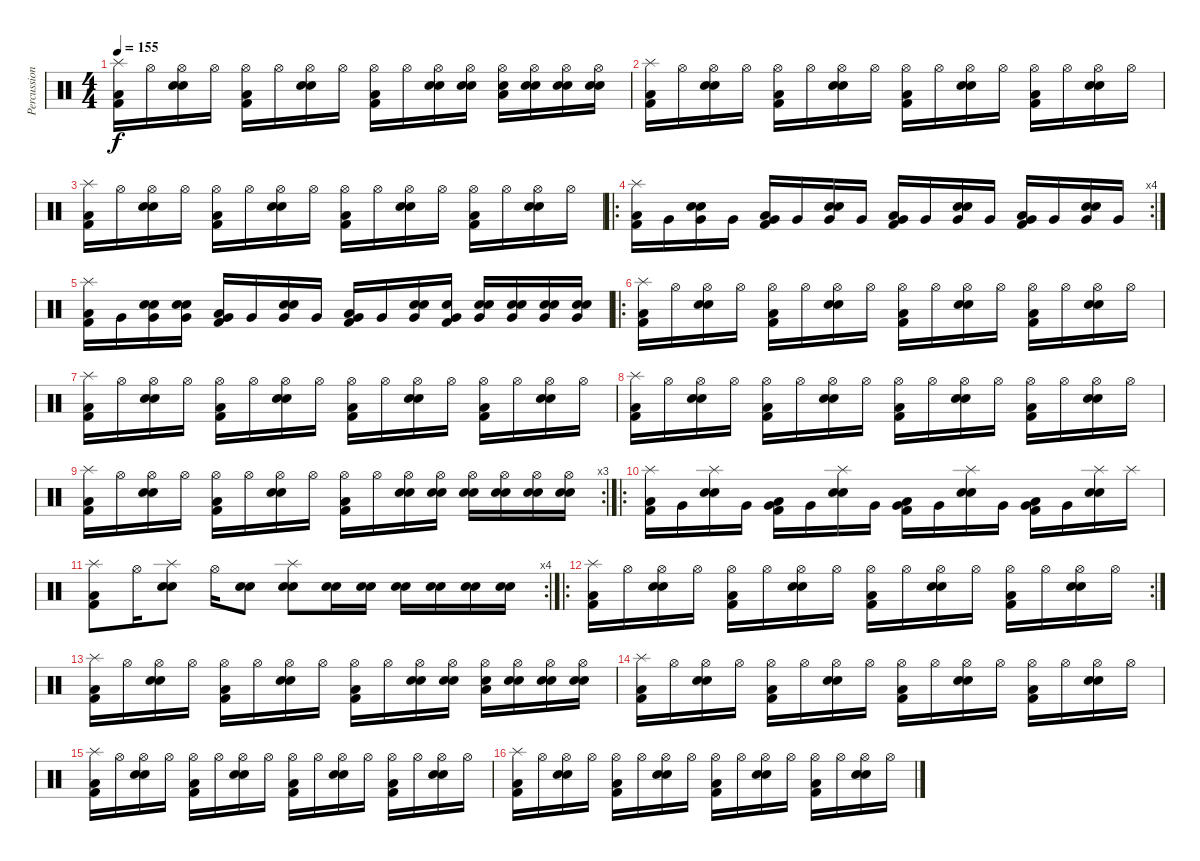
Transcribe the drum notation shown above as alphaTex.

\track ("Percussions" "Percussion") {instrument percussion}
\staff {score}
\articulation defaults
\ts (4 4)
\tempo 155
\clef neutral
\ks c
("Splash (hit)" "Kick (hit) 2" "Low Floor Tom (hit)").16{dy f} "Hi-Hat (open)".16 ("Hi-Hat (open)" "Snare (hit) 2" "Electric Snare (hit)").16 "Hi-Hat (open)".16 ("Hi-Hat (open)" "Kick (hit) 2" "Low Floor Tom (hit)").16 "Hi-Hat (open)".16 ("Hi-Hat (open)" "Snare (hit) 2" "Electric Snare (hit)").16 "Hi-Hat (open)".16 ("Hi-Hat (open)" "Kick (hit) 2" "Low Floor Tom (hit)").16 "Hi-Hat (open)".16 ("Hi-Hat (open)" "Snare (hit) 2" "Electric Snare (hit)").16 ("Hi-Hat (open)" "Snare (hit) 2" "Electric Snare (hit)").16 ("Hi-Hat (open)" "Snare (hit) 2" "Low Floor Tom (hit)").16 ("Hi-Hat (open)" "Snare (hit) 2" "Electric Snare (hit)").16 ("Hi-Hat (open)" "Snare (hit) 2" "Electric Snare (hit)").16 ("Hi-Hat (open)" "Snare (hit) 2" "Electric Snare (hit)").16 |
("Splash (hit)" "Kick (hit) 2" "Low Floor Tom (hit)").16 "Hi-Hat (open)".16 ("Hi-Hat (open)" "Snare (hit) 2" "Electric Snare (hit)").16 "Hi-Hat (open)".16 ("Hi-Hat (open)" "Kick (hit) 2" "Low Floor Tom (hit)").16 "Hi-Hat (open)".16 ("Hi-Hat (open)" "Snare (hit) 2" "Electric Snare (hit)").16 "Hi-Hat (open)".16 ("Hi-Hat (open)" "Kick (hit) 2" "Low Floor Tom (hit)").16 "Hi-Hat (open)".16 ("Hi-Hat (open)" "Snare (hit) 2" "Electric Snare (hit)").16 "Hi-Hat (open)".16 ("Hi-Hat (open)" "Kick (hit) 2" "Low Floor Tom (hit)").16 "Hi-Hat (open)".16 ("Hi-Hat (open)" "Snare (hit) 2" "Electric Snare (hit)").16 "Hi-Hat (open)".16 |
("Splash (hit)" "Kick (hit) 2" "Low Floor Tom (hit)").16 "Hi-Hat (open)".16 ("Hi-Hat (open)" "Snare (hit) 2" "Electric Snare (hit)").16 "Hi-Hat (open)".16 ("Hi-Hat (open)" "Kick (hit) 2" "Low Floor Tom (hit)").16 "Hi-Hat (open)".16 ("Hi-Hat (open)" "Snare (hit) 2" "Electric Snare (hit)").16 "Hi-Hat (open)".16 ("Hi-Hat (open)" "Kick (hit) 2" "Low Floor Tom (hit)").16 "Hi-Hat (open)".16 ("Hi-Hat (open)" "Snare (hit) 2" "Electric Snare (hit)").16 "Hi-Hat (open)".16 ("Hi-Hat (open)" "Kick (hit) 2" "Low Floor Tom (hit)").16 "Hi-Hat (open)".16 ("Hi-Hat (open)" "Snare (hit) 2" "Electric Snare (hit)").16 "Hi-Hat (open)".16 |
\ro
\rc 4
("Splash (hit)" "Kick (hit) 2" "Low Floor Tom (hit)").16 "Very Low Tom (hit)".16 ("Very Low Tom (hit)" "Electric Snare (hit)" "Snare (hit) 2").16 "Very Low Tom (hit)".16 ("Very Low Tom (hit)" "Low Floor Tom (hit)" "Kick (hit) 2").16 "Very Low Tom (hit)".16 ("Very Low Tom (hit)" "Electric Snare (hit)" "Snare (hit) 2").16 "Very Low Tom (hit)".16 ("Very Low Tom (hit)" "Kick (hit) 2" "Low Floor Tom (hit)").16 "Very Low Tom (hit)".16 ("Very Low Tom (hit)" "Electric Snare (hit)" "Snare (hit) 2").16 "Very Low Tom (hit)".16 ("Very Low Tom (hit)" "Kick (hit) 2" "Low Floor Tom (hit)").16 "Very Low Tom (hit)".16 ("Very Low Tom (hit)" "Electric Snare (hit)" "Snare (hit) 2").16 "Very Low Tom (hit)".16 |
("Splash (hit)" "Kick (hit) 2" "Low Floor Tom (hit)").16 "Very Low Tom (hit)".16 ("Very Low Tom (hit)" "Electric Snare (hit)" "Snare (hit) 2").16 ("Very Low Tom (hit)" "Electric Snare (hit)" "Snare (hit) 2").16 ("Very Low Tom (hit)" "Low Floor Tom (hit)" "Kick (hit) 2").16 "Very Low Tom (hit)".16 ("Very Low Tom (hit)" "Electric Snare (hit)" "Snare (hit) 2").16 "Very Low Tom (hit)".16 ("Very Low Tom (hit)" "Kick (hit) 2" "Low Floor Tom (hit)").16 "Very Low Tom (hit)".16 ("Very Low Tom (hit)" "Electric Snare (hit)" "Snare (hit) 2").16 ("Very Low Tom (hit)" "Electric Snare (hit)" "Kick (hit) 2").16 ("Very Low Tom (hit)" "Electric Snare (hit)" "Snare (hit) 2").16 ("Very Low Tom (hit)" "Electric Snare (hit)" "Snare (hit) 2").16 ("Very Low Tom (hit)" "Electric Snare (hit)" "Snare (hit) 2").16 ("Very Low Tom (hit)" "Electric Snare (hit)" "Snare (hit) 2").16 |
\ro
("Splash (hit)" "Kick (hit) 2" "Low Floor Tom (hit)").16 "Hi-Hat (open)".16 ("Hi-Hat (open)" "Snare (hit) 2" "Electric Snare (hit)").16 "Hi-Hat (open)".16 ("Hi-Hat (open)" "Kick (hit) 2" "Low Floor Tom (hit)").16 "Hi-Hat (open)".16 ("Hi-Hat (open)" "Snare (hit) 2" "Electric Snare (hit)").16 "Hi-Hat (open)".16 ("Hi-Hat (open)" "Kick (hit) 2" "Low Floor Tom (hit)").16 "Hi-Hat (open)".16 ("Hi-Hat (open)" "Snare (hit) 2" "Electric Snare (hit)").16 "Hi-Hat (open)".16 ("Hi-Hat (open)" "Kick (hit) 2" "Low Floor Tom (hit)").16 "Hi-Hat (open)".16 ("Hi-Hat (open)" "Snare (hit) 2" "Electric Snare (hit)").16 "Hi-Hat (open)".16 |
("Splash (hit)" "Kick (hit) 2" "Low Floor Tom (hit)").16 "Hi-Hat (open)".16 ("Hi-Hat (open)" "Snare (hit) 2" "Electric Snare (hit)").16 "Hi-Hat (open)".16 ("Hi-Hat (open)" "Kick (hit) 2" "Low Floor Tom (hit)").16 "Hi-Hat (open)".16 ("Hi-Hat (open)" "Snare (hit) 2" "Electric Snare (hit)").16 "Hi-Hat (open)".16 ("Hi-Hat (open)" "Kick (hit) 2" "Low Floor Tom (hit)").16 "Hi-Hat (open)".16 ("Hi-Hat (open)" "Snare (hit) 2" "Electric Snare (hit)").16 "Hi-Hat (open)".16 ("Hi-Hat (open)" "Kick (hit) 2" "Low Floor Tom (hit)").16 "Hi-Hat (open)".16 ("Hi-Hat (open)" "Snare (hit) 2" "Electric Snare (hit)").16 "Hi-Hat (open)".16 |
("Splash (hit)" "Kick (hit) 2" "Low Floor Tom (hit)").16 "Hi-Hat (open)".16 ("Hi-Hat (open)" "Snare (hit) 2" "Electric Snare (hit)").16 "Hi-Hat (open)".16 ("Hi-Hat (open)" "Kick (hit) 2" "Low Floor Tom (hit)").16 "Hi-Hat (open)".16 ("Hi-Hat (open)" "Snare (hit) 2" "Electric Snare (hit)").16 "Hi-Hat (open)".16 ("Hi-Hat (open)" "Kick (hit) 2" "Low Floor Tom (hit)").16 "Hi-Hat (open)".16 ("Hi-Hat (open)" "Snare (hit) 2" "Electric Snare (hit)").16 "Hi-Hat (open)".16 ("Hi-Hat (open)" "Kick (hit) 2" "Low Floor Tom (hit)").16 "Hi-Hat (open)".16 ("Hi-Hat (open)" "Snare (hit) 2" "Electric Snare (hit)").16 "Hi-Hat (open)".16 |
\rc 3
("Splash (hit)" "Kick (hit) 2" "Low Floor Tom (hit)").16 "Hi-Hat (open)".16 ("Hi-Hat (open)" "Snare (hit) 2" "Electric Snare (hit)").16 "Hi-Hat (open)".16 ("Hi-Hat (open)" "Kick (hit) 2" "Low Floor Tom (hit)").16 "Hi-Hat (open)".16 ("Hi-Hat (open)" "Snare (hit) 2" "Electric Snare (hit)").16 "Hi-Hat (open)".16 ("Hi-Hat (open)" "Kick (hit) 2" "Low Floor Tom (hit)").16 "Hi-Hat (open)".16 ("Hi-Hat (open)" "Snare (hit) 2" "Electric Snare (hit)").16 ("Hi-Hat (open)" "Snare (hit) 2" "Electric Snare (hit)").16 ("Hi-Hat (open)" "Snare (hit) 2" "Electric Snare (hit)").16 ("Hi-Hat (open)" "Snare (hit) 2" "Electric Snare (hit)").16 ("Hi-Hat (open)" "Snare (hit) 2" "Electric Snare (hit)").16 ("Hi-Hat (open)" "Snare (hit) 2" "Electric Snare (hit)").16 |
\ro
("Splash (hit)" "Kick (hit) 2" "Low Floor Tom (hit)").16 "Very Low Tom (hit)".16 ("Splash (hit)" "Electric Snare (hit)" "Snare (hit) 2").16 "Very Low Tom (hit)".16 ("Very Low Tom (hit)" "Low Floor Tom (hit)" "Kick (hit) 2").16 "Very Low Tom (hit)".16 ("Splash (hit)" "Electric Snare (hit)" "Snare (hit) 2").16 "Very Low Tom (hit)".16 ("Very Low Tom (hit)" "Kick (hit) 2" "Low Floor Tom (hit)").16 "Very Low Tom (hit)".16 ("Splash (hit)" "Electric Snare (hit)" "Snare (hit) 2").16 "Very Low Tom (hit)".16 ("Very Low Tom (hit)" "Kick (hit) 2" "Low Floor Tom (hit)").16 "Very Low Tom (hit)".16 ("Splash (hit)" "Electric Snare (hit)" "Snare (hit) 2").16 "Splash (hit)".16 |
\rc 4
("Splash (hit)" "Kick (hit) 2" "Low Floor Tom (hit)").8 "Hi-Hat (open)".16 ("Splash (hit)" "Snare (hit) 2" "Electric Snare (hit)").8 "Hi-Hat (open)".16 ("Snare (hit) 2" "Electric Snare (hit)").8 ("Splash (hit)" "Snare (hit) 2" "Electric Snare (hit)").8 ("Snare (hit) 2" "Electric Snare (hit)").16 ("Snare (hit) 2" "Electric Snare (hit)").16 ("Snare (hit) 2" "Electric Snare (hit)").16 ("Snare (hit) 2" "Electric Snare (hit)").16 ("Snare (hit) 2" "Electric Snare (hit)").16 ("Snare (hit) 2" "Electric Snare (hit)").16 |
\ro
\rc 2
("Splash (hit)" "Kick (hit) 2" "Low Floor Tom (hit)").16 "Hi-Hat (open)".16 ("Hi-Hat (open)" "Snare (hit) 2" "Electric Snare (hit)").16 "Hi-Hat (open)".16 ("Hi-Hat (open)" "Kick (hit) 2" "Low Floor Tom (hit)").16 "Hi-Hat (open)".16 ("Hi-Hat (open)" "Snare (hit) 2" "Electric Snare (hit)").16 "Hi-Hat (open)".16 ("Hi-Hat (open)" "Kick (hit) 2" "Low Floor Tom (hit)").16 "Hi-Hat (open)".16 ("Hi-Hat (open)" "Snare (hit) 2" "Electric Snare (hit)").16 "Hi-Hat (open)".16 ("Hi-Hat (open)" "Kick (hit) 2" "Low Floor Tom (hit)").16 "Hi-Hat (open)".16 ("Hi-Hat (open)" "Snare (hit) 2" "Electric Snare (hit)").16 "Hi-Hat (open)".16 |
("Splash (hit)" "Kick (hit) 2" "Low Floor Tom (hit)").16 "Hi-Hat (open)".16 ("Hi-Hat (open)" "Snare (hit) 2" "Electric Snare (hit)").16 "Hi-Hat (open)".16 ("Hi-Hat (open)" "Kick (hit) 2" "Low Floor Tom (hit)").16 "Hi-Hat (open)".16 ("Hi-Hat (open)" "Snare (hit) 2" "Electric Snare (hit)").16 "Hi-Hat (open)".16 ("Hi-Hat (open)" "Kick (hit) 2" "Low Floor Tom (hit)").16 "Hi-Hat (open)".16 ("Hi-Hat (open)" "Snare (hit) 2" "Electric Snare (hit)").16 ("Hi-Hat (open)" "Snare (hit) 2" "Electric Snare (hit)").16 ("Hi-Hat (open)" "Snare (hit) 2" "Low Floor Tom (hit)").16 ("Hi-Hat (open)" "Snare (hit) 2" "Electric Snare (hit)").16 ("Hi-Hat (open)" "Snare (hit) 2" "Electric Snare (hit)").16 ("Hi-Hat (open)" "Snare (hit) 2" "Electric Snare (hit)").16 |
("Splash (hit)" "Kick (hit) 2" "Low Floor Tom (hit)").16 "Hi-Hat (open)".16 ("Hi-Hat (open)" "Snare (hit) 2" "Electric Snare (hit)").16 "Hi-Hat (open)".16 ("Hi-Hat (open)" "Kick (hit) 2" "Low Floor Tom (hit)").16 "Hi-Hat (open)".16 ("Hi-Hat (open)" "Snare (hit) 2" "Electric Snare (hit)").16 "Hi-Hat (open)".16 ("Hi-Hat (open)" "Kick (hit) 2" "Low Floor Tom (hit)").16 "Hi-Hat (open)".16 ("Hi-Hat (open)" "Snare (hit) 2" "Electric Snare (hit)").16 "Hi-Hat (open)".16 ("Hi-Hat (open)" "Kick (hit) 2" "Low Floor Tom (hit)").16 "Hi-Hat (open)".16 ("Hi-Hat (open)" "Snare (hit) 2" "Electric Snare (hit)").16 "Hi-Hat (open)".16 |
("Splash (hit)" "Kick (hit) 2" "Low Floor Tom (hit)").16 "Hi-Hat (open)".16 ("Hi-Hat (open)" "Snare (hit) 2" "Electric Snare (hit)").16 "Hi-Hat (open)".16 ("Hi-Hat (open)" "Kick (hit) 2" "Low Floor Tom (hit)").16 "Hi-Hat (open)".16 ("Hi-Hat (open)" "Snare (hit) 2" "Electric Snare (hit)").16 "Hi-Hat (open)".16 ("Hi-Hat (open)" "Kick (hit) 2" "Low Floor Tom (hit)").16 "Hi-Hat (open)".16 ("Hi-Hat (open)" "Snare (hit) 2" "Electric Snare (hit)").16 "Hi-Hat (open)".16 ("Hi-Hat (open)" "Kick (hit) 2" "Low Floor Tom (hit)").16 "Hi-Hat (open)".16 ("Hi-Hat (open)" "Snare (hit) 2" "Electric Snare (hit)").16 "Hi-Hat (open)".16 |
("Splash (hit)" "Kick (hit) 2" "Low Floor Tom (hit)").16 "Hi-Hat (open)".16 ("Hi-Hat (open)" "Snare (hit) 2" "Electric Snare (hit)").16 "Hi-Hat (open)".16 ("Hi-Hat (open)" "Kick (hit) 2" "Low Floor Tom (hit)").16 "Hi-Hat (open)".16 ("Hi-Hat (open)" "Snare (hit) 2" "Electric Snare (hit)").16 "Hi-Hat (open)".16 ("Hi-Hat (open)" "Kick (hit) 2" "Low Floor Tom (hit)").16 "Hi-Hat (open)".16 ("Hi-Hat (open)" "Snare (hit) 2" "Electric Snare (hit)").16 "Hi-Hat (open)".16 ("Hi-Hat (open)" "Kick (hit) 2" "Low Floor Tom (hit)").16 "Hi-Hat (open)".16 ("Hi-Hat (open)" "Snare (hit) 2" "Electric Snare (hit)").16 "Hi-Hat (open)".16
